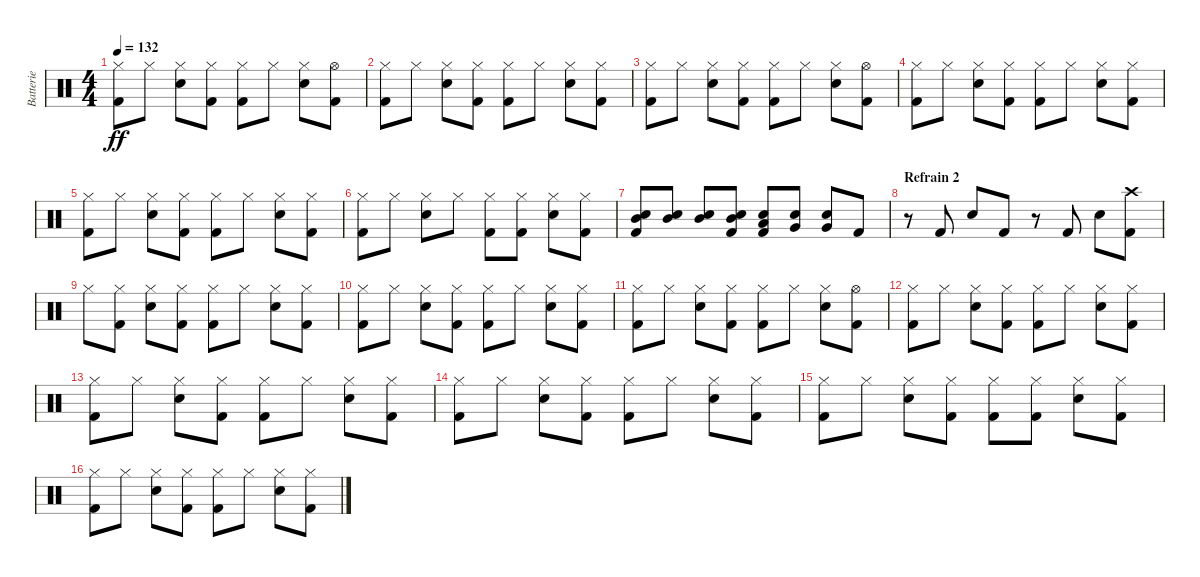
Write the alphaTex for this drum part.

\track ("Batterie" "Batterie") {instrument percussion}
\staff {score}
\articulation defaults
\ts (4 4)
\tempo 132
\clef neutral
\ks c
("Kick (hit) 2" "Hi-Hat (closed)").8{dy ff} "Hi-Hat (closed)".8 ("Snare (hit) 2" "Hi-Hat (closed)").8 ("Kick (hit) 2" "Hi-Hat (closed)").8 ("Kick (hit) 2" "Hi-Hat (closed)").8 "Hi-Hat (closed)".8 ("Snare (hit) 2" "Hi-Hat (closed)").8 ("Kick (hit) 2" "Hi-Hat (open)").8 |
("Kick (hit) 2" "Hi-Hat (closed)").8 "Hi-Hat (closed)".8 ("Snare (hit) 2" "Hi-Hat (closed)").8 ("Kick (hit) 2" "Hi-Hat (closed)").8 ("Kick (hit) 2" "Hi-Hat (closed)").8 "Hi-Hat (closed)".8 ("Snare (hit) 2" "Hi-Hat (closed)").8 ("Kick (hit) 2" "Hi-Hat (closed)").8 |
("Kick (hit) 2" "Hi-Hat (closed)").8 "Hi-Hat (closed)".8 ("Snare (hit) 2" "Hi-Hat (closed)").8 ("Kick (hit) 2" "Hi-Hat (closed)").8 ("Kick (hit) 2" "Hi-Hat (closed)").8 "Hi-Hat (closed)".8 ("Snare (hit) 2" "Hi-Hat (closed)").8 ("Kick (hit) 2" "Hi-Hat (open)").8 |
("Kick (hit) 2" "Hi-Hat (closed)").8 "Hi-Hat (closed)".8 ("Snare (hit) 2" "Hi-Hat (closed)").8 ("Kick (hit) 2" "Hi-Hat (closed)").8 ("Kick (hit) 2" "Hi-Hat (closed)").8 "Hi-Hat (closed)".8 ("Snare (hit) 2" "Hi-Hat (closed)").8 ("Kick (hit) 2" "Hi-Hat (closed)").8 |
("Kick (hit) 2" "Hi-Hat (closed)").8 "Hi-Hat (closed)".8 ("Snare (hit) 2" "Hi-Hat (closed)").8 ("Kick (hit) 2" "Hi-Hat (closed)").8 ("Kick (hit) 2" "Hi-Hat (closed)").8 "Hi-Hat (closed)".8 ("Snare (hit) 2" "Hi-Hat (closed)").8 ("Kick (hit) 2" "Hi-Hat (closed)").8 |
("Kick (hit) 2" "Hi-Hat (closed)").8 "Hi-Hat (closed)".8 ("Snare (hit) 2" "Hi-Hat (closed)").8 "Hi-Hat (closed)".8 ("Kick (hit) 2" "Hi-Hat (closed)").8 ("Kick (hit) 2" "Hi-Hat (closed)").8 ("Snare (hit) 2" "Hi-Hat (closed)").8 ("Kick (hit) 2" "Hi-Hat (closed)").8 |
("Kick (hit) 2" "Snare (hit) 2" "Mid Tom (hit)").8 ("Snare (hit) 2" "Mid Tom (hit)").8 ("Snare (hit) 2" "Mid Tom (hit)").8 ("Kick (hit) 2" "Snare (hit) 2" "Mid Tom (hit)").8 ("Kick (hit) 2" "Snare (hit) 2" "Low Tom (hit)").8 ("Snare (hit) 2" "Very Low Tom (hit)").8 ("Snare (hit) 2" "Very Low Tom (hit)").8 "Kick (hit) 2".8 |
\section ("" "Refrain 2")
r.8 "Kick (hit) 2".8 "Snare (hit) 2".8 "Kick (hit) 2".8 r.8 "Kick (hit) 2".8 "Snare (hit) 2".8 ("Kick (hit) 2" "Crash high (hit)").8 |
"Hi-Hat (closed)".8 ("Kick (hit) 2" "Hi-Hat (closed)").8 ("Snare (hit) 2" "Hi-Hat (closed)").8 ("Kick (hit) 2" "Hi-Hat (closed)").8 ("Kick (hit) 2" "Hi-Hat (closed)").8 "Hi-Hat (closed)".8 ("Snare (hit) 2" "Hi-Hat (closed)").8 ("Kick (hit) 2" "Hi-Hat (closed)").8 |
("Kick (hit) 2" "Hi-Hat (closed)").8 "Hi-Hat (closed)".8 ("Snare (hit) 2" "Hi-Hat (closed)").8 ("Kick (hit) 2" "Hi-Hat (closed)").8 ("Kick (hit) 2" "Hi-Hat (closed)").8 "Hi-Hat (closed)".8 ("Snare (hit) 2" "Hi-Hat (closed)").8 ("Kick (hit) 2" "Hi-Hat (closed)").8 |
("Kick (hit) 2" "Hi-Hat (closed)").8 "Hi-Hat (closed)".8 ("Snare (hit) 2" "Hi-Hat (closed)").8 ("Kick (hit) 2" "Hi-Hat (closed)").8 ("Kick (hit) 2" "Hi-Hat (closed)").8 "Hi-Hat (closed)".8 ("Snare (hit) 2" "Hi-Hat (closed)").8 ("Kick (hit) 2" "Hi-Hat (open)").8 |
("Kick (hit) 2" "Hi-Hat (closed)").8 "Hi-Hat (closed)".8 ("Snare (hit) 2" "Hi-Hat (closed)").8 ("Kick (hit) 2" "Hi-Hat (closed)").8 ("Kick (hit) 2" "Hi-Hat (closed)").8 "Hi-Hat (closed)".8 ("Snare (hit) 2" "Hi-Hat (closed)").8 ("Kick (hit) 2" "Hi-Hat (closed)").8 |
("Kick (hit) 2" "Hi-Hat (closed)").8 "Hi-Hat (closed)".8 ("Snare (hit) 2" "Hi-Hat (closed)").8 ("Kick (hit) 2" "Hi-Hat (closed)").8 ("Kick (hit) 2" "Hi-Hat (closed)").8 "Hi-Hat (closed)".8 ("Snare (hit) 2" "Hi-Hat (closed)").8 ("Kick (hit) 2" "Hi-Hat (closed)").8 |
("Kick (hit) 2" "Hi-Hat (closed)").8 "Hi-Hat (closed)".8 ("Snare (hit) 2" "Hi-Hat (closed)").8 ("Kick (hit) 2" "Hi-Hat (closed)").8 ("Kick (hit) 2" "Hi-Hat (closed)").8 "Hi-Hat (closed)".8 ("Snare (hit) 2" "Hi-Hat (closed)").8 ("Kick (hit) 2" "Hi-Hat (closed)").8 |
("Kick (hit) 2" "Hi-Hat (closed)").8 "Hi-Hat (closed)".8 ("Snare (hit) 2" "Hi-Hat (closed)").8 ("Kick (hit) 2" "Hi-Hat (closed)").8 ("Kick (hit) 2" "Hi-Hat (closed)").8 ("Kick (hit) 2" "Hi-Hat (closed)").8 ("Snare (hit) 2" "Hi-Hat (closed)").8 ("Kick (hit) 2" "Hi-Hat (closed)").8 |
("Kick (hit) 2" "Hi-Hat (closed)").8 "Hi-Hat (closed)".8 ("Snare (hit) 2" "Hi-Hat (closed)").8 ("Kick (hit) 2" "Hi-Hat (closed)").8 ("Kick (hit) 2" "Hi-Hat (closed)").8 "Hi-Hat (closed)".8 ("Snare (hit) 2" "Hi-Hat (closed)").8 ("Kick (hit) 2" "Hi-Hat (closed)").8
